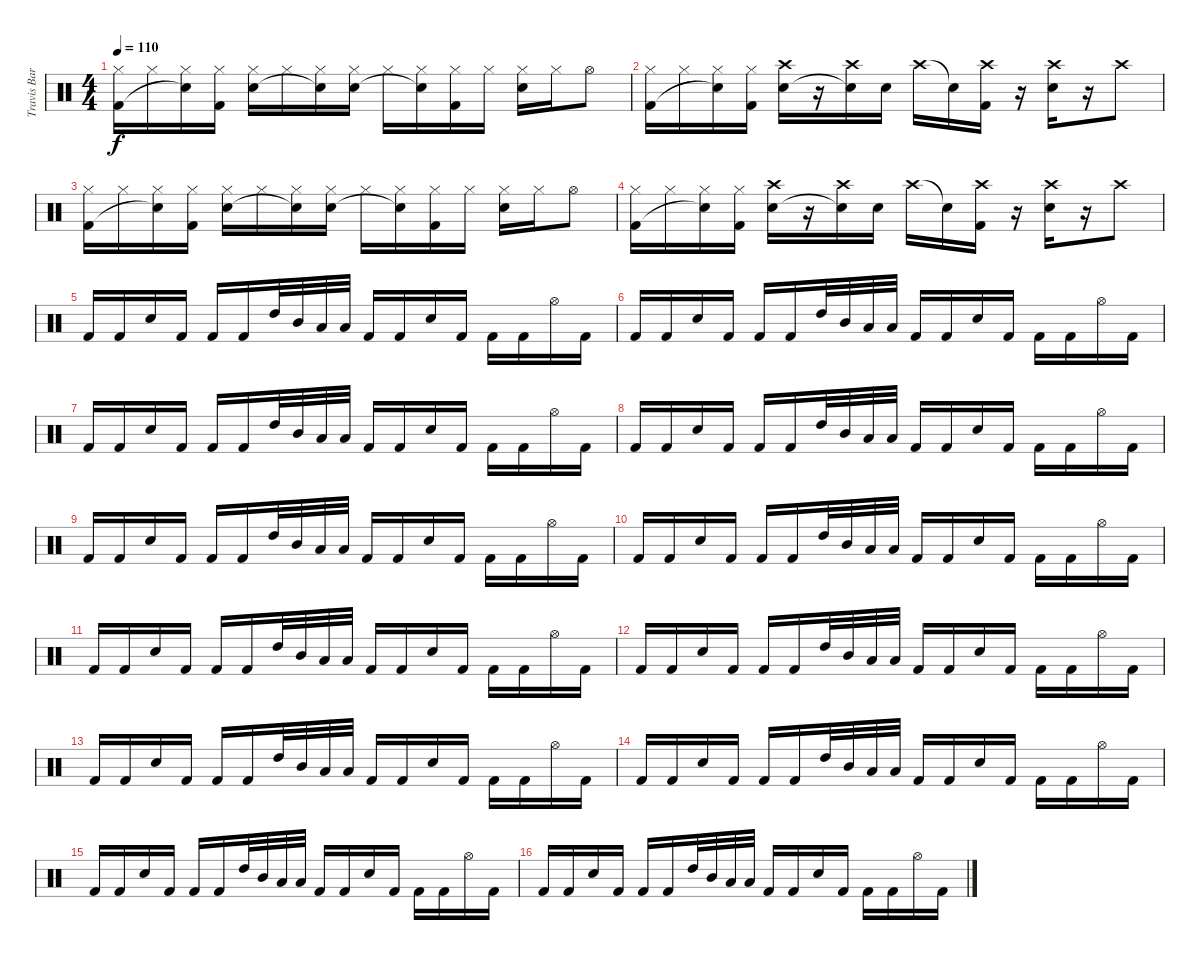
\track ("Travis Barker (Drums)" "Travis Bar") {instrument percussion}
\staff {score}
\articulation defaults
\ts (4 4)
\tempo 110
\clef neutral
\ks c
("Hi-Hat (closed)" "Kick (hit) 2").16{dy f} "Hi-Hat (closed)".16 ("Hi-Hat (closed)" "Snare (hit)"{t}).16 ("Hi-Hat (closed)" "Kick (hit) 2").16 ("Hi-Hat (closed)" "Electric Snare (hit)").16 "Hi-Hat (closed)".16 ("Hi-Hat (closed)" "Snare (hit)"{t}).16 ("Hi-Hat (closed)" "Electric Snare (hit)").16 "Hi-Hat (closed)".16 ("Hi-Hat (closed)" "Snare (hit)"{t}).16 ("Hi-Hat (closed)" "Kick (hit) 2").16 "Hi-Hat (closed)".16 ("Hi-Hat (closed)" "Electric Snare (hit)").16 "Hi-Hat (closed)".16 "Hi-Hat (open)".8 |
("Hi-Hat (closed)" "Kick (hit) 2").16 "Hi-Hat (closed)".16 ("Hi-Hat (closed)" "Snare (hit)"{t}).16 ("Hi-Hat (closed)" "Kick (hit) 2").16 ("Crash high (hit)" "Electric Snare (hit)").16 r.16 ("Crash high (hit)" "Snare (hit)"{t}).16 "Electric Snare (hit)".16 "Crash high (hit)".16 "Snare (hit)"{t}.16 ("Crash high (hit)" "Kick (hit) 2").16 r.16 ("Crash high (hit)" "Electric Snare (hit)").16 r.16 "Crash high (hit)".8 |
("Hi-Hat (closed)" "Kick (hit) 2").16 "Hi-Hat (closed)".16 ("Hi-Hat (closed)" "Snare (hit)"{t}).16 ("Hi-Hat (closed)" "Kick (hit) 2").16 ("Hi-Hat (closed)" "Electric Snare (hit)").16 "Hi-Hat (closed)".16 ("Hi-Hat (closed)" "Snare (hit)"{t}).16 ("Hi-Hat (closed)" "Electric Snare (hit)").16 "Hi-Hat (closed)".16 ("Hi-Hat (closed)" "Snare (hit)"{t}).16 ("Hi-Hat (closed)" "Kick (hit) 2").16 "Hi-Hat (closed)".16 ("Hi-Hat (closed)" "Electric Snare (hit)").16 "Hi-Hat (closed)".16 "Hi-Hat (open)".8 |
("Hi-Hat (closed)" "Kick (hit) 2").16 "Hi-Hat (closed)".16 ("Hi-Hat (closed)" "Snare (hit)"{t}).16 ("Hi-Hat (closed)" "Kick (hit) 2").16 ("Crash high (hit)" "Electric Snare (hit)").16 r.16 ("Crash high (hit)" "Snare (hit)"{t}).16 "Electric Snare (hit)".16 "Crash high (hit)".16 "Snare (hit)"{t}.16 ("Crash high (hit)" "Kick (hit) 2").16 r.16 ("Crash high (hit)" "Electric Snare (hit)").16 r.16 "Crash high (hit)".8 |
"Kick (hit) 2".16 "Kick (hit) 2".16 "Electric Snare (hit)".16 "Kick (hit) 2".16 "Kick (hit) 2".16 "Kick (hit) 2".16 "High Tom (hit)".32 "Mid Tom (hit)".32 "Low Tom (hit)".32 "Low Tom (hit)".32 "Kick (hit) 2".16 "Kick (hit) 2".16 "Electric Snare (hit)".16 "Kick (hit) 2".16 "Kick (hit) 2".16 "Kick (hit) 2".16 "Hi-Hat (open)".16 "Kick (hit) 2".16 |
"Kick (hit) 2".16 "Kick (hit) 2".16 "Electric Snare (hit)".16 "Kick (hit) 2".16 "Kick (hit) 2".16 "Kick (hit) 2".16 "High Tom (hit)".32 "Mid Tom (hit)".32 "Low Tom (hit)".32 "Low Tom (hit)".32 "Kick (hit) 2".16 "Kick (hit) 2".16 "Electric Snare (hit)".16 "Kick (hit) 2".16 "Kick (hit) 2".16 "Kick (hit) 2".16 "Hi-Hat (open)".16 "Kick (hit) 2".16 |
"Kick (hit) 2".16 "Kick (hit) 2".16 "Electric Snare (hit)".16 "Kick (hit) 2".16 "Kick (hit) 2".16 "Kick (hit) 2".16 "High Tom (hit)".32 "Mid Tom (hit)".32 "Low Tom (hit)".32 "Low Tom (hit)".32 "Kick (hit) 2".16 "Kick (hit) 2".16 "Electric Snare (hit)".16 "Kick (hit) 2".16 "Kick (hit) 2".16 "Kick (hit) 2".16 "Hi-Hat (open)".16 "Kick (hit) 2".16 |
"Kick (hit) 2".16 "Kick (hit) 2".16 "Electric Snare (hit)".16 "Kick (hit) 2".16 "Kick (hit) 2".16 "Kick (hit) 2".16 "High Tom (hit)".32 "Mid Tom (hit)".32 "Low Tom (hit)".32 "Low Tom (hit)".32 "Kick (hit) 2".16 "Kick (hit) 2".16 "Electric Snare (hit)".16 "Kick (hit) 2".16 "Kick (hit) 2".16 "Kick (hit) 2".16 "Hi-Hat (open)".16 "Kick (hit) 2".16 |
"Kick (hit) 2".16 "Kick (hit) 2".16 "Electric Snare (hit)".16 "Kick (hit) 2".16 "Kick (hit) 2".16 "Kick (hit) 2".16 "High Tom (hit)".32 "Mid Tom (hit)".32 "Low Tom (hit)".32 "Low Tom (hit)".32 "Kick (hit) 2".16 "Kick (hit) 2".16 "Electric Snare (hit)".16 "Kick (hit) 2".16 "Kick (hit) 2".16 "Kick (hit) 2".16 "Hi-Hat (open)".16 "Kick (hit) 2".16 |
"Kick (hit) 2".16 "Kick (hit) 2".16 "Electric Snare (hit)".16 "Kick (hit) 2".16 "Kick (hit) 2".16 "Kick (hit) 2".16 "High Tom (hit)".32 "Mid Tom (hit)".32 "Low Tom (hit)".32 "Low Tom (hit)".32 "Kick (hit) 2".16 "Kick (hit) 2".16 "Electric Snare (hit)".16 "Kick (hit) 2".16 "Kick (hit) 2".16 "Kick (hit) 2".16 "Hi-Hat (open)".16 "Kick (hit) 2".16 |
"Kick (hit) 2".16 "Kick (hit) 2".16 "Electric Snare (hit)".16 "Kick (hit) 2".16 "Kick (hit) 2".16 "Kick (hit) 2".16 "High Tom (hit)".32 "Mid Tom (hit)".32 "Low Tom (hit)".32 "Low Tom (hit)".32 "Kick (hit) 2".16 "Kick (hit) 2".16 "Electric Snare (hit)".16 "Kick (hit) 2".16 "Kick (hit) 2".16 "Kick (hit) 2".16 "Hi-Hat (open)".16 "Kick (hit) 2".16 |
"Kick (hit) 2".16 "Kick (hit) 2".16 "Electric Snare (hit)".16 "Kick (hit) 2".16 "Kick (hit) 2".16 "Kick (hit) 2".16 "High Tom (hit)".32 "Mid Tom (hit)".32 "Low Tom (hit)".32 "Low Tom (hit)".32 "Kick (hit) 2".16 "Kick (hit) 2".16 "Electric Snare (hit)".16 "Kick (hit) 2".16 "Kick (hit) 2".16 "Kick (hit) 2".16 "Hi-Hat (open)".16 "Kick (hit) 2".16 |
"Kick (hit) 2".16 "Kick (hit) 2".16 "Electric Snare (hit)".16 "Kick (hit) 2".16 "Kick (hit) 2".16 "Kick (hit) 2".16 "High Tom (hit)".32 "Mid Tom (hit)".32 "Low Tom (hit)".32 "Low Tom (hit)".32 "Kick (hit) 2".16 "Kick (hit) 2".16 "Electric Snare (hit)".16 "Kick (hit) 2".16 "Kick (hit) 2".16 "Kick (hit) 2".16 "Hi-Hat (open)".16 "Kick (hit) 2".16 |
"Kick (hit) 2".16 "Kick (hit) 2".16 "Electric Snare (hit)".16 "Kick (hit) 2".16 "Kick (hit) 2".16 "Kick (hit) 2".16 "High Tom (hit)".32 "Mid Tom (hit)".32 "Low Tom (hit)".32 "Low Tom (hit)".32 "Kick (hit) 2".16 "Kick (hit) 2".16 "Electric Snare (hit)".16 "Kick (hit) 2".16 "Kick (hit) 2".16 "Kick (hit) 2".16 "Hi-Hat (open)".16 "Kick (hit) 2".16 |
"Kick (hit) 2".16 "Kick (hit) 2".16 "Electric Snare (hit)".16 "Kick (hit) 2".16 "Kick (hit) 2".16 "Kick (hit) 2".16 "High Tom (hit)".32 "Mid Tom (hit)".32 "Low Tom (hit)".32 "Low Tom (hit)".32 "Kick (hit) 2".16 "Kick (hit) 2".16 "Electric Snare (hit)".16 "Kick (hit) 2".16 "Kick (hit) 2".16 "Kick (hit) 2".16 "Hi-Hat (open)".16 "Kick (hit) 2".16 |
"Kick (hit) 2".16 "Kick (hit) 2".16 "Electric Snare (hit)".16 "Kick (hit) 2".16 "Kick (hit) 2".16 "Kick (hit) 2".16 "High Tom (hit)".32 "Mid Tom (hit)".32 "Low Tom (hit)".32 "Low Tom (hit)".32 "Kick (hit) 2".16 "Kick (hit) 2".16 "Electric Snare (hit)".16 "Kick (hit) 2".16 "Kick (hit) 2".16 "Kick (hit) 2".16 "Hi-Hat (open)".16 "Kick (hit) 2".16
